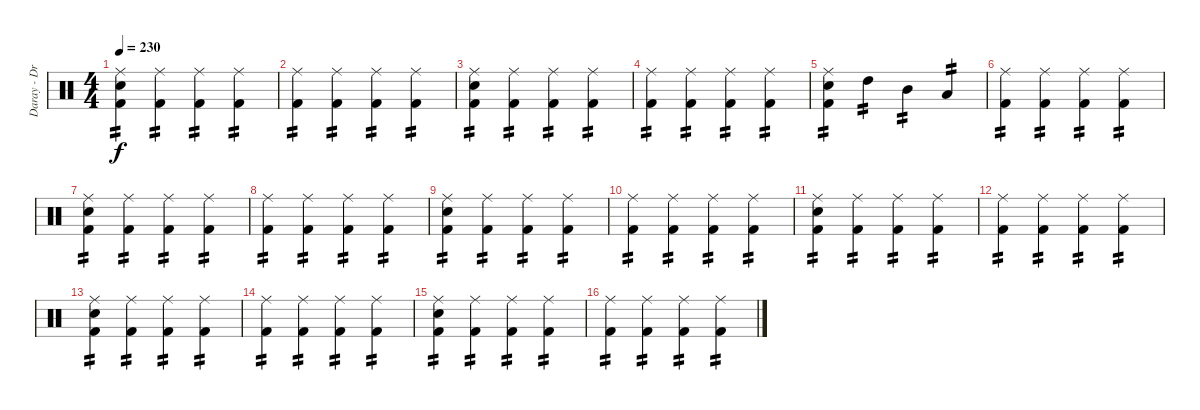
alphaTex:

\track ("Daray - Drums" "Daray - Dr") {instrument percussion}
\staff {score}
\articulation defaults
\ts (4 4)
\tempo 230
\clef neutral
\ks c
("Ride (middle)" "Electric Snare (hit)" "Kick (hit) 2").4{tp 2 dy f} ("Ride (middle)" "Kick (hit) 2").4{tp 2} ("Ride (middle)" "Kick (hit) 2").4{tp 2} ("Ride (middle)" "Kick (hit) 2").4{tp 2} |
("Ride (middle)" "Kick (hit) 2").4{tp 2} ("Ride (middle)" "Kick (hit) 2").4{tp 2} ("Ride (middle)" "Kick (hit) 2").4{tp 2} ("Ride (middle)" "Kick (hit) 2").4{tp 2} |
("Ride (middle)" "Electric Snare (hit)" "Kick (hit) 2").4{tp 2} ("Ride (middle)" "Kick (hit) 2").4{tp 2} ("Ride (middle)" "Kick (hit) 2").4{tp 2} ("Ride (middle)" "Kick (hit) 2").4{tp 2} |
("Ride (middle)" "Kick (hit) 2").4{tp 2} ("Ride (middle)" "Kick (hit) 2").4{tp 2} ("Ride (middle)" "Kick (hit) 2").4{tp 2} ("Ride (middle)" "Kick (hit) 2").4{tp 2} |
("Ride (middle)" "Electric Snare (hit)" "Kick (hit) 2").4{tp 2} "High Tom (hit)".4{tp 2} "Mid Tom (hit)".4{tp 2} "Low Tom (hit)".4{tp 2} |
("Ride (middle)" "Kick (hit) 2").4{tp 2} ("Ride (middle)" "Kick (hit) 2").4{tp 2} ("Ride (middle)" "Kick (hit) 2").4{tp 2} ("Ride (middle)" "Kick (hit) 2").4{tp 2} |
("Ride (middle)" "Electric Snare (hit)" "Kick (hit) 2").4{tp 2} ("Ride (middle)" "Kick (hit) 2").4{tp 2} ("Ride (middle)" "Kick (hit) 2").4{tp 2} ("Ride (middle)" "Kick (hit) 2").4{tp 2} |
("Ride (middle)" "Kick (hit) 2").4{tp 2} ("Ride (middle)" "Kick (hit) 2").4{tp 2} ("Ride (middle)" "Kick (hit) 2").4{tp 2} ("Ride (middle)" "Kick (hit) 2").4{tp 2} |
("Ride (middle)" "Electric Snare (hit)" "Kick (hit) 2").4{tp 2} ("Ride (middle)" "Kick (hit) 2").4{tp 2} ("Ride (middle)" "Kick (hit) 2").4{tp 2} ("Ride (middle)" "Kick (hit) 2").4{tp 2} |
("Ride (middle)" "Kick (hit) 2").4{tp 2} ("Ride (middle)" "Kick (hit) 2").4{tp 2} ("Ride (middle)" "Kick (hit) 2").4{tp 2} ("Ride (middle)" "Kick (hit) 2").4{tp 2} |
("Ride (middle)" "Electric Snare (hit)" "Kick (hit) 2").4{tp 2} ("Ride (middle)" "Kick (hit) 2").4{tp 2} ("Ride (middle)" "Kick (hit) 2").4{tp 2} ("Ride (middle)" "Kick (hit) 2").4{tp 2} |
("Ride (middle)" "Kick (hit) 2").4{tp 2} ("Ride (middle)" "Kick (hit) 2").4{tp 2} ("Ride (middle)" "Kick (hit) 2").4{tp 2} ("Ride (middle)" "Kick (hit) 2").4{tp 2} |
("Ride (middle)" "Electric Snare (hit)" "Kick (hit) 2").4{tp 2} ("Ride (middle)" "Kick (hit) 2").4{tp 2} ("Ride (middle)" "Kick (hit) 2").4{tp 2} ("Ride (middle)" "Kick (hit) 2").4{tp 2} |
("Ride (middle)" "Kick (hit) 2").4{tp 2} ("Ride (middle)" "Kick (hit) 2").4{tp 2} ("Ride (middle)" "Kick (hit) 2").4{tp 2} ("Ride (middle)" "Kick (hit) 2").4{tp 2} |
("Ride (middle)" "Electric Snare (hit)" "Kick (hit) 2").4{tp 2} ("Ride (middle)" "Kick (hit) 2").4{tp 2} ("Ride (middle)" "Kick (hit) 2").4{tp 2} ("Ride (middle)" "Kick (hit) 2").4{tp 2} |
("Ride (middle)" "Kick (hit) 2").4{tp 2} ("Ride (middle)" "Kick (hit) 2").4{tp 2} ("Ride (middle)" "Kick (hit) 2").4{tp 2} ("Ride (middle)" "Kick (hit) 2").4{tp 2}
